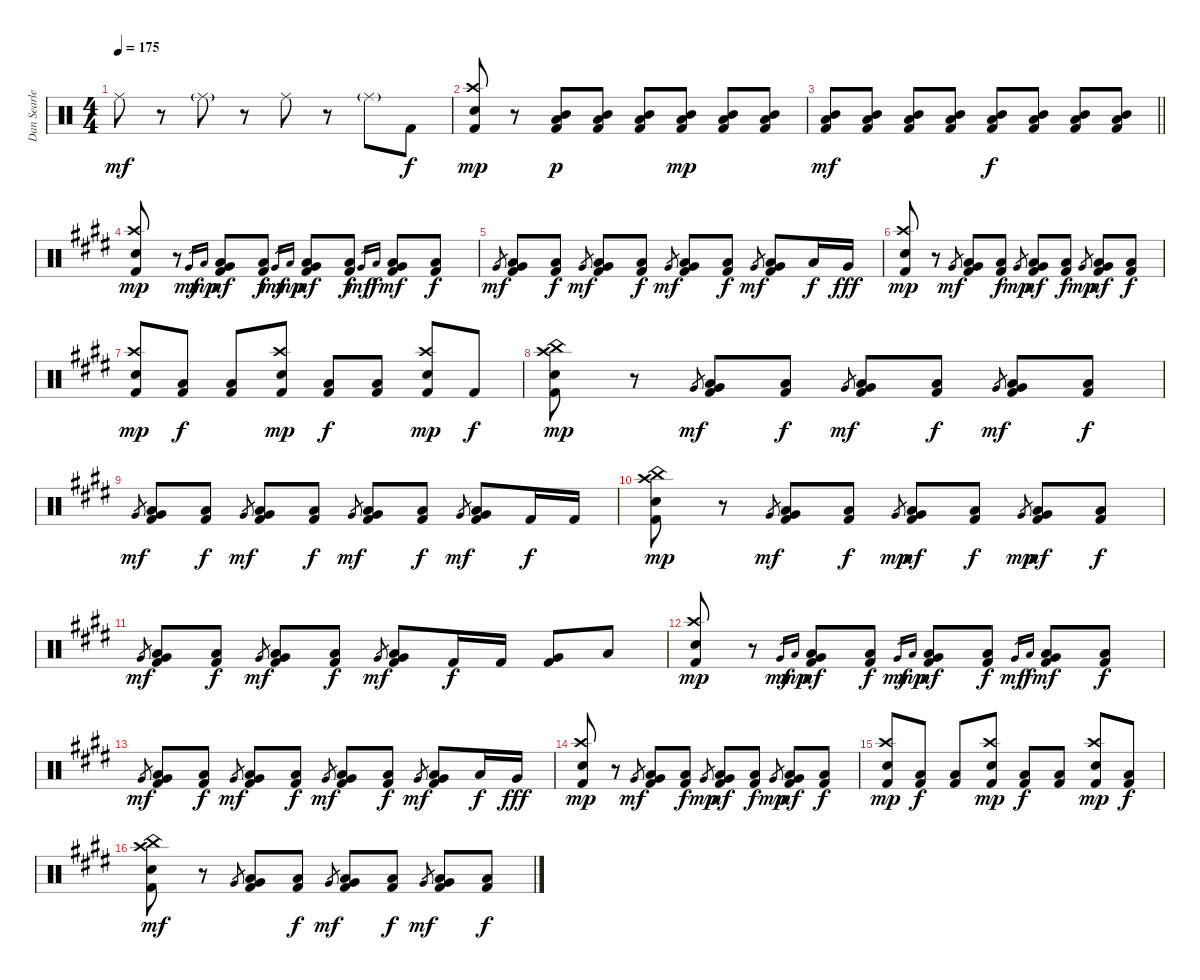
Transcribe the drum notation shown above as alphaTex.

\track ("Dan Searle" "Dan Searle") {instrument percussion}
\staff {score}
\articulation defaults
\ts (4 4)
\tempo 175
\clef neutral
\ks c "Ride (middle)".8{dy mf}
r.8 "Ride (middle)"{g}.8 r.8 "Ride (middle)".8 r.8 "Ride (middle)"{g}.8 "Kick (hit) 2".8{dy f} |
("Crash high (hit)" "Electric Snare (hit)" "Kick (hit) 2").8{dy mp} r.8 ("Mid Tom (hit)" "Low Tom (hit)" "Kick (hit) 2").8{dy p} ("Mid Tom (hit)" "Low Tom (hit)" "Kick (hit) 2").8 ("Mid Tom (hit)" "Low Tom (hit)" "Kick (hit) 2").8 ("Mid Tom (hit)" "Low Tom (hit)" "Kick (hit) 2").8{dy mp} ("Mid Tom (hit)" "Low Tom (hit)" "Kick (hit) 2").8 ("Mid Tom (hit)" "Low Tom (hit)" "Kick (hit) 2").8 |
\barLineRight lightlight
("Mid Tom (hit)" "Low Tom (hit)" "Kick (hit) 2").8{dy mf} ("Mid Tom (hit)" "Low Tom (hit)" "Kick (hit) 2").8 ("Mid Tom (hit)" "Low Tom (hit)" "Kick (hit) 2").8 ("Mid Tom (hit)" "Low Tom (hit)" "Kick (hit) 2").8 ("Mid Tom (hit)" "Low Tom (hit)" "Kick (hit) 2").8{dy f} ("Mid Tom (hit)" "Low Tom (hit)" "Kick (hit) 2").8 ("Mid Tom (hit)" "Low Tom (hit)" "Kick (hit) 2").8 ("Mid Tom (hit)" "Low Tom (hit)" "Kick (hit) 2").8 |
\ks e
("Crash high (hit)" "Electric Snare (hit)" "Kick (hit) 2").8{dy mp} r.8 "Very Low Tom (hit)".16{gr dy mf} "Low Floor Tom (hit)".16{gr dy mp} ("Very Low Tom (hit)" "Low Floor Tom (hit)" "Kick (hit) 2").8{dy mf} ("Low Floor Tom (hit)" "Kick (hit) 2").8{dy f} "Very Low Tom (hit)".16{gr dy mf} "Low Floor Tom (hit)".16{gr dy mp} ("Very Low Tom (hit)" "Low Floor Tom (hit)" "Kick (hit) 2").8{dy mf} ("Low Floor Tom (hit)" "Kick (hit) 2").8{dy f} "Very Low Tom (hit)".16{gr dy mf} "Low Floor Tom (hit)".16{gr dy f} ("Very Low Tom (hit)" "Low Floor Tom (hit)" "Kick (hit) 2").8{dy mf} ("Low Floor Tom (hit)" "Kick (hit) 2").8{dy f} |
"Very Low Tom (hit)".8{gr dy mf} ("Very Low Tom (hit)" "Low Floor Tom (hit)" "Kick (hit) 2").8 ("Low Floor Tom (hit)" "Kick (hit) 2").8{dy f} "Very Low Tom (hit)".8{gr dy mf} ("Very Low Tom (hit)" "Low Floor Tom (hit)" "Kick (hit) 2").8 ("Low Floor Tom (hit)" "Kick (hit) 2").8{dy f} "Very Low Tom (hit)".8{gr dy mf} ("Very Low Tom (hit)" "Low Floor Tom (hit)" "Kick (hit) 2").8 ("Low Floor Tom (hit)" "Kick (hit) 2").8{dy f} "Very Low Tom (hit)".8{gr dy mf} ("Very Low Tom (hit)" "Low Floor Tom (hit)" "Kick (hit) 2").8 "Low Tom (hit)".16{dy f} "Very Low Tom (hit)".16{dy fff} |
("Crash high (hit)" "Electric Snare (hit)" "Kick (hit) 2").8{dy mp} r.8 "Very Low Tom (hit)".8{gr dy mf} ("Very Low Tom (hit)" "Low Floor Tom (hit)" "Kick (hit) 2").8 ("Low Floor Tom (hit)" "Kick (hit) 2").8{dy f} "Very Low Tom (hit)".8{gr dy mp} ("Very Low Tom (hit)" "Low Floor Tom (hit)" "Kick (hit) 2").8{dy mf} ("Low Floor Tom (hit)" "Kick (hit) 2").8{dy f} "Very Low Tom (hit)".8{gr dy mp} ("Very Low Tom (hit)" "Low Floor Tom (hit)" "Kick (hit) 2").8{dy mf} ("Low Floor Tom (hit)" "Kick (hit) 2").8{dy f} |
("Crash high (hit)" "Electric Snare (hit)" "Kick (hit) 2").8{dy mp} ("Low Floor Tom (hit)" "Kick (hit) 2").8{dy f} ("Low Floor Tom (hit)" "Kick (hit) 2").8 ("Crash high (hit)" "Electric Snare (hit)" "Kick (hit) 2").8{dy mp} ("Low Floor Tom (hit)" "Kick (hit) 2").8{dy f} ("Low Floor Tom (hit)" "Kick (hit) 2").8 ("Crash high (hit)" "Electric Snare (hit)" "Kick (hit) 2").8{dy mp} "Kick (hit) 2".8{dy f} |
("Crash high (hit)" "China (hit)" "Electric Snare (hit)" "Kick (hit) 2").8{dy mp} r.8 "Very Low Tom (hit)".8{gr dy mf} ("Very Low Tom (hit)" "Low Floor Tom (hit)" "Kick (hit) 2").8 ("Low Floor Tom (hit)" "Kick (hit) 2").8{dy f} "Very Low Tom (hit)".8{gr dy mf} ("Very Low Tom (hit)" "Low Floor Tom (hit)" "Kick (hit) 2").8 ("Low Floor Tom (hit)" "Kick (hit) 2").8{dy f} "Very Low Tom (hit)".8{gr dy mf} ("Very Low Tom (hit)" "Low Floor Tom (hit)" "Kick (hit) 2").8 ("Low Floor Tom (hit)" "Kick (hit) 2").8{dy f} |
"Very Low Tom (hit)".8{gr dy mf} ("Very Low Tom (hit)" "Low Floor Tom (hit)" "Kick (hit) 2").8 ("Low Floor Tom (hit)" "Kick (hit) 2").8{dy f} "Very Low Tom (hit)".8{gr dy mf} ("Very Low Tom (hit)" "Low Floor Tom (hit)" "Kick (hit) 2").8 ("Low Floor Tom (hit)" "Kick (hit) 2").8{dy f} "Very Low Tom (hit)".8{gr dy mf} ("Very Low Tom (hit)" "Low Floor Tom (hit)" "Kick (hit) 2").8 ("Low Floor Tom (hit)" "Kick (hit) 2").8{dy f} "Very Low Tom (hit)".8{gr dy mf} ("Very Low Tom (hit)" "Low Floor Tom (hit)" "Kick (hit) 2").8 "Kick (hit) 2".16{dy f} "Kick (hit) 2".16 |
("Crash high (hit)" "China (hit)" "Electric Snare (hit)" "Kick (hit) 2").8{dy mp} r.8 "Very Low Tom (hit)".8{gr dy mf} ("Very Low Tom (hit)" "Low Floor Tom (hit)" "Kick (hit) 2").8 ("Low Floor Tom (hit)" "Kick (hit) 2").8{dy f} "Very Low Tom (hit)".8{gr dy mp} ("Very Low Tom (hit)" "Low Floor Tom (hit)" "Kick (hit) 2").8{dy mf} ("Low Floor Tom (hit)" "Kick (hit) 2").8{dy f} "Very Low Tom (hit)".8{gr dy mp} ("Very Low Tom (hit)" "Low Floor Tom (hit)" "Kick (hit) 2").8{dy mf} ("Low Floor Tom (hit)" "Kick (hit) 2").8{dy f} |
"Very Low Tom (hit)".8{gr dy mf} ("Very Low Tom (hit)" "Low Floor Tom (hit)" "Kick (hit) 2").8 ("Low Floor Tom (hit)" "Kick (hit) 2").8{dy f} "Very Low Tom (hit)".8{gr dy mf} ("Very Low Tom (hit)" "Low Floor Tom (hit)" "Kick (hit) 2").8 ("Low Floor Tom (hit)" "Kick (hit) 2").8{dy f} "Very Low Tom (hit)".8{gr dy mf} ("Very Low Tom (hit)" "Low Floor Tom (hit)" "Kick (hit) 2").8 "Kick (hit) 2".16{dy f} "Kick (hit) 2".16 ("Very Low Tom (hit)" "Kick (hit) 2").8 "Low Floor Tom (hit)".8 |
("Crash high (hit)" "Electric Snare (hit)" "Kick (hit) 2").8{dy mp} r.8 "Very Low Tom (hit)".16{gr dy mf} "Low Floor Tom (hit)".16{gr dy mp} ("Very Low Tom (hit)" "Low Floor Tom (hit)" "Kick (hit) 2").8{dy mf} ("Low Floor Tom (hit)" "Kick (hit) 2").8{dy f} "Very Low Tom (hit)".16{gr dy mf} "Low Floor Tom (hit)".16{gr dy mp} ("Very Low Tom (hit)" "Low Floor Tom (hit)" "Kick (hit) 2").8{dy mf} ("Low Floor Tom (hit)" "Kick (hit) 2").8{dy f} "Very Low Tom (hit)".16{gr dy mf} "Low Floor Tom (hit)".16{gr dy f} ("Very Low Tom (hit)" "Low Floor Tom (hit)" "Kick (hit) 2").8{dy mf} ("Low Floor Tom (hit)" "Kick (hit) 2").8{dy f} |
"Very Low Tom (hit)".8{gr dy mf} ("Very Low Tom (hit)" "Low Floor Tom (hit)" "Kick (hit) 2").8 ("Low Floor Tom (hit)" "Kick (hit) 2").8{dy f} "Very Low Tom (hit)".8{gr dy mf} ("Very Low Tom (hit)" "Low Floor Tom (hit)" "Kick (hit) 2").8 ("Low Floor Tom (hit)" "Kick (hit) 2").8{dy f} "Very Low Tom (hit)".8{gr dy mf} ("Very Low Tom (hit)" "Low Floor Tom (hit)" "Kick (hit) 2").8 ("Low Floor Tom (hit)" "Kick (hit) 2").8{dy f} "Very Low Tom (hit)".8{gr dy mf} ("Very Low Tom (hit)" "Low Floor Tom (hit)" "Kick (hit) 2").8 "Low Tom (hit)".16{dy f} "Very Low Tom (hit)".16{dy fff} |
("Crash high (hit)" "Electric Snare (hit)" "Kick (hit) 2").8{dy mp} r.8 "Very Low Tom (hit)".8{gr dy mf} ("Very Low Tom (hit)" "Low Floor Tom (hit)" "Kick (hit) 2").8 ("Low Floor Tom (hit)" "Kick (hit) 2").8{dy f} "Very Low Tom (hit)".8{gr dy mp} ("Very Low Tom (hit)" "Low Floor Tom (hit)" "Kick (hit) 2").8{dy mf} ("Low Floor Tom (hit)" "Kick (hit) 2").8{dy f} "Very Low Tom (hit)".8{gr dy mp} ("Very Low Tom (hit)" "Low Floor Tom (hit)" "Kick (hit) 2").8{dy mf} ("Low Floor Tom (hit)" "Kick (hit) 2").8{dy f} |
("Crash high (hit)" "Electric Snare (hit)" "Kick (hit) 2").8{dy mp} ("Low Floor Tom (hit)" "Kick (hit) 2").8{dy f} ("Low Floor Tom (hit)" "Kick (hit) 2").8 ("Crash high (hit)" "Electric Snare (hit)" "Kick (hit) 2").8{dy mp} ("Low Floor Tom (hit)" "Kick (hit) 2").8{dy f} ("Low Floor Tom (hit)" "Kick (hit) 2").8 ("Crash high (hit)" "Electric Snare (hit)" "Kick (hit) 2").8{dy mp} ("Low Floor Tom (hit)" "Kick (hit) 2").8{dy f} |
("Crash high (hit)" "China (hit)" "Electric Snare (hit)" "Kick (hit) 2").8{dy mf} r.8 "Very Low Tom (hit)".8{gr} ("Very Low Tom (hit)" "Low Floor Tom (hit)" "Kick (hit) 2").8 ("Low Floor Tom (hit)" "Kick (hit) 2").8{dy f} "Very Low Tom (hit)".8{gr dy mf} ("Very Low Tom (hit)" "Low Floor Tom (hit)" "Kick (hit) 2").8 ("Low Floor Tom (hit)" "Kick (hit) 2").8{dy f} "Very Low Tom (hit)".8{gr dy mf} ("Very Low Tom (hit)" "Low Floor Tom (hit)" "Kick (hit) 2").8 ("Low Floor Tom (hit)" "Kick (hit) 2").8{dy f}
